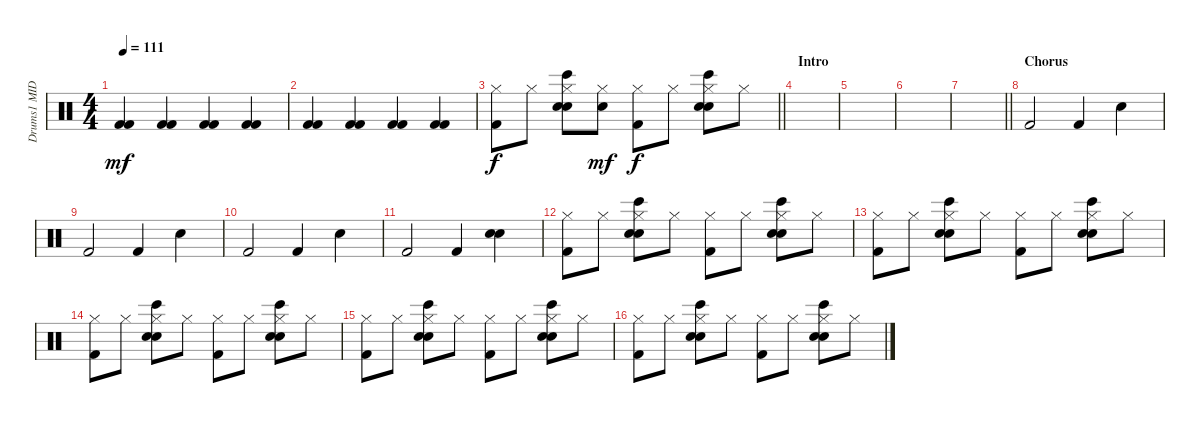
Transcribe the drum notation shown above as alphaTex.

\track ("Drums1 MIDI" "Drums1 MID") {instrument percussion}
\staff {score}
\articulation defaults
\ts (4 4)
\tempo 111
\clef neutral
\ks c
("Kick (hit) 2" "Kick (hit) 2").4{dy mf} ("Kick (hit) 2" "Kick (hit) 2").4 ("Kick (hit) 2" "Kick (hit) 2").4 ("Kick (hit) 2" "Kick (hit) 2").4 |
("Kick (hit) 2" "Kick (hit) 2").4 ("Kick (hit) 2" "Kick (hit) 2").4 ("Kick (hit) 2" "Kick (hit) 2").4 ("Kick (hit) 2" "Kick (hit) 2").4 |
\barLineRight lightlight
("Hi-Hat (closed)" "Kick (hit) 2").8{dy f} "Hi-Hat (closed)".8 ("Hi-Hat (closed)" "Bongo High (hit)" "Hand Clap (hit)" "Snare (hit) 2").8 ("Hi-Hat (closed)" "Hand Clap (hit)").8{dy mf} ("Hi-Hat (closed)" "Kick (hit) 2").8{dy f} "Hi-Hat (closed)".8 ("Hi-Hat (closed)" "Bongo High (hit)" "Hand Clap (hit)" "Snare (hit) 2").8 "Hi-Hat (closed)".8 |
\section ("" "Intro")
|
|
|
\barLineRight lightlight
|
\section ("" "Chorus")
"Kick (hit) 2".2 "Kick (hit) 2".4 "Hand Clap (hit)".4 |
"Kick (hit) 2".2 "Kick (hit) 2".4 "Hand Clap (hit)".4 |
"Kick (hit) 2".2 "Kick (hit) 2".4 "Hand Clap (hit)".4 |
"Kick (hit) 2".2 "Kick (hit) 2".4 ("Hand Clap (hit)" "Snare (hit) 2").4 |
("Hi-Hat (closed)" "Kick (hit) 2").8 "Hi-Hat (closed)".8 ("Hi-Hat (closed)" "Bongo High (hit)" "Hand Clap (hit)" "Snare (hit) 2").8 "Hi-Hat (closed)".8 ("Hi-Hat (closed)" "Kick (hit) 2").8 "Hi-Hat (closed)".8 ("Hi-Hat (closed)" "Bongo High (hit)" "Hand Clap (hit)" "Snare (hit) 2").8 "Hi-Hat (closed)".8 |
("Hi-Hat (closed)" "Kick (hit) 2").8 "Hi-Hat (closed)".8 ("Hi-Hat (closed)" "Bongo High (hit)" "Hand Clap (hit)" "Snare (hit) 2").8 "Hi-Hat (closed)".8 ("Hi-Hat (closed)" "Kick (hit) 2").8 "Hi-Hat (closed)".8 ("Hi-Hat (closed)" "Bongo High (hit)" "Hand Clap (hit)" "Snare (hit) 2").8 "Hi-Hat (closed)".8 |
("Hi-Hat (closed)" "Kick (hit) 2").8 "Hi-Hat (closed)".8 ("Hi-Hat (closed)" "Bongo High (hit)" "Hand Clap (hit)" "Snare (hit) 2").8 "Hi-Hat (closed)".8 ("Hi-Hat (closed)" "Kick (hit) 2").8 "Hi-Hat (closed)".8 ("Hi-Hat (closed)" "Bongo High (hit)" "Hand Clap (hit)" "Snare (hit) 2").8 "Hi-Hat (closed)".8 |
("Hi-Hat (closed)" "Kick (hit) 2").8 "Hi-Hat (closed)".8 ("Hi-Hat (closed)" "Bongo High (hit)" "Hand Clap (hit)" "Snare (hit) 2").8 "Hi-Hat (closed)".8 ("Hi-Hat (closed)" "Kick (hit) 2").8 "Hi-Hat (closed)".8 ("Hi-Hat (closed)" "Bongo High (hit)" "Hand Clap (hit)" "Snare (hit) 2").8 "Hi-Hat (closed)".8 |
("Hi-Hat (closed)" "Kick (hit) 2").8 "Hi-Hat (closed)".8 ("Hi-Hat (closed)" "Bongo High (hit)" "Hand Clap (hit)" "Snare (hit) 2").8 "Hi-Hat (closed)".8 ("Hi-Hat (closed)" "Kick (hit) 2").8 "Hi-Hat (closed)".8 ("Hi-Hat (closed)" "Bongo High (hit)" "Hand Clap (hit)" "Snare (hit) 2").8 "Hi-Hat (closed)".8
